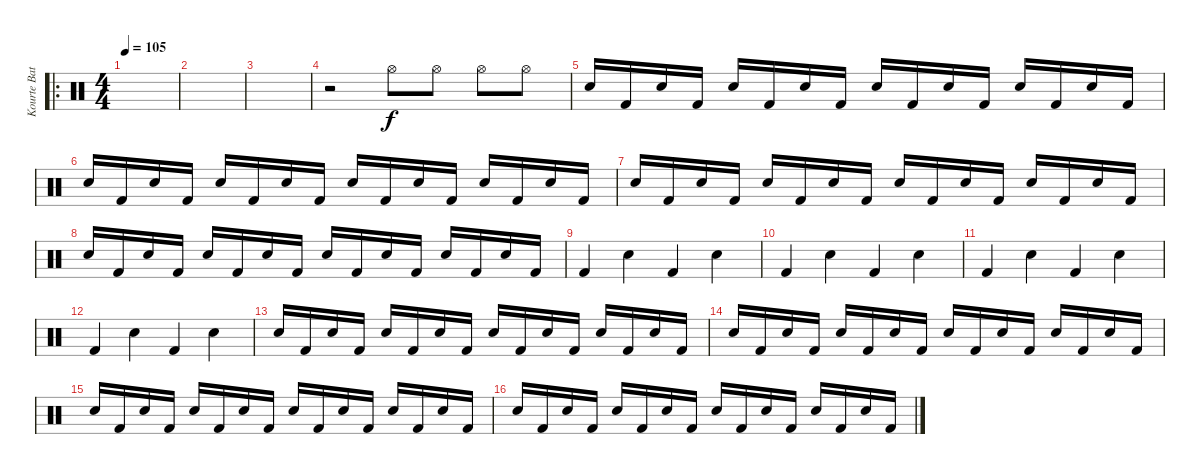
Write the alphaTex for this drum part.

\track ("Kourte Batt" "Kourte Bat") {instrument percussion}
\staff {score}
\articulation defaults
\ro
\ts (4 4)
\tempo 105
\clef neutral
\ks c
|
|
|
r.2 "Hi-Hat (open)".8 "Hi-Hat (open)".8 "Hi-Hat (open)".8 "Hi-Hat (open)".8 |
"Electric Snare (hit)".16 "Kick (hit) 2".16 "Electric Snare (hit)".16 "Kick (hit) 2".16 "Electric Snare (hit)".16 "Kick (hit) 2".16 "Electric Snare (hit)".16 "Kick (hit) 2".16 "Electric Snare (hit)".16 "Kick (hit) 2".16 "Electric Snare (hit)".16 "Kick (hit) 2".16 "Electric Snare (hit)".16 "Kick (hit) 2".16 "Electric Snare (hit)".16 "Kick (hit) 2".16 |
"Electric Snare (hit)".16 "Kick (hit) 2".16 "Electric Snare (hit)".16 "Kick (hit) 2".16 "Electric Snare (hit)".16 "Kick (hit) 2".16 "Electric Snare (hit)".16 "Kick (hit) 2".16 "Electric Snare (hit)".16 "Kick (hit) 2".16 "Electric Snare (hit)".16 "Kick (hit) 2".16 "Electric Snare (hit)".16 "Kick (hit) 2".16 "Electric Snare (hit)".16 "Kick (hit) 2".16 |
"Electric Snare (hit)".16 "Kick (hit) 2".16 "Electric Snare (hit)".16 "Kick (hit) 2".16 "Electric Snare (hit)".16 "Kick (hit) 2".16 "Electric Snare (hit)".16 "Kick (hit) 2".16 "Electric Snare (hit)".16 "Kick (hit) 2".16 "Electric Snare (hit)".16 "Kick (hit) 2".16 "Electric Snare (hit)".16 "Kick (hit) 2".16 "Electric Snare (hit)".16 "Kick (hit) 2".16 |
"Electric Snare (hit)".16 "Kick (hit) 2".16 "Electric Snare (hit)".16 "Kick (hit) 2".16 "Electric Snare (hit)".16 "Kick (hit) 2".16 "Electric Snare (hit)".16 "Kick (hit) 2".16 "Electric Snare (hit)".16 "Kick (hit) 2".16 "Electric Snare (hit)".16 "Kick (hit) 2".16 "Electric Snare (hit)".16 "Kick (hit) 2".16 "Electric Snare (hit)".16 "Kick (hit) 2".16 |
"Kick (hit) 2".4 "Electric Snare (hit)".4 "Kick (hit) 2".4 "Electric Snare (hit)".4 |
"Kick (hit) 2".4 "Electric Snare (hit)".4 "Kick (hit) 2".4 "Electric Snare (hit)".4 |
"Kick (hit) 2".4 "Electric Snare (hit)".4 "Kick (hit) 2".4 "Electric Snare (hit)".4 |
"Kick (hit) 2".4 "Electric Snare (hit)".4 "Kick (hit) 2".4 "Electric Snare (hit)".4 |
"Electric Snare (hit)".16 "Kick (hit) 2".16 "Electric Snare (hit)".16 "Kick (hit) 2".16 "Electric Snare (hit)".16 "Kick (hit) 2".16 "Electric Snare (hit)".16 "Kick (hit) 2".16 "Electric Snare (hit)".16 "Kick (hit) 2".16 "Electric Snare (hit)".16 "Kick (hit) 2".16 "Electric Snare (hit)".16 "Kick (hit) 2".16 "Electric Snare (hit)".16 "Kick (hit) 2".16 |
"Electric Snare (hit)".16 "Kick (hit) 2".16 "Electric Snare (hit)".16 "Kick (hit) 2".16 "Electric Snare (hit)".16 "Kick (hit) 2".16 "Electric Snare (hit)".16 "Kick (hit) 2".16 "Electric Snare (hit)".16 "Kick (hit) 2".16 "Electric Snare (hit)".16 "Kick (hit) 2".16 "Electric Snare (hit)".16 "Kick (hit) 2".16 "Electric Snare (hit)".16 "Kick (hit) 2".16 |
"Electric Snare (hit)".16 "Kick (hit) 2".16 "Electric Snare (hit)".16 "Kick (hit) 2".16 "Electric Snare (hit)".16 "Kick (hit) 2".16 "Electric Snare (hit)".16 "Kick (hit) 2".16 "Electric Snare (hit)".16 "Kick (hit) 2".16 "Electric Snare (hit)".16 "Kick (hit) 2".16 "Electric Snare (hit)".16 "Kick (hit) 2".16 "Electric Snare (hit)".16 "Kick (hit) 2".16 |
"Electric Snare (hit)".16 "Kick (hit) 2".16 "Electric Snare (hit)".16 "Kick (hit) 2".16 "Electric Snare (hit)".16 "Kick (hit) 2".16 "Electric Snare (hit)".16 "Kick (hit) 2".16 "Electric Snare (hit)".16 "Kick (hit) 2".16 "Electric Snare (hit)".16 "Kick (hit) 2".16 "Electric Snare (hit)".16 "Kick (hit) 2".16 "Electric Snare (hit)".16 "Kick (hit) 2".16
